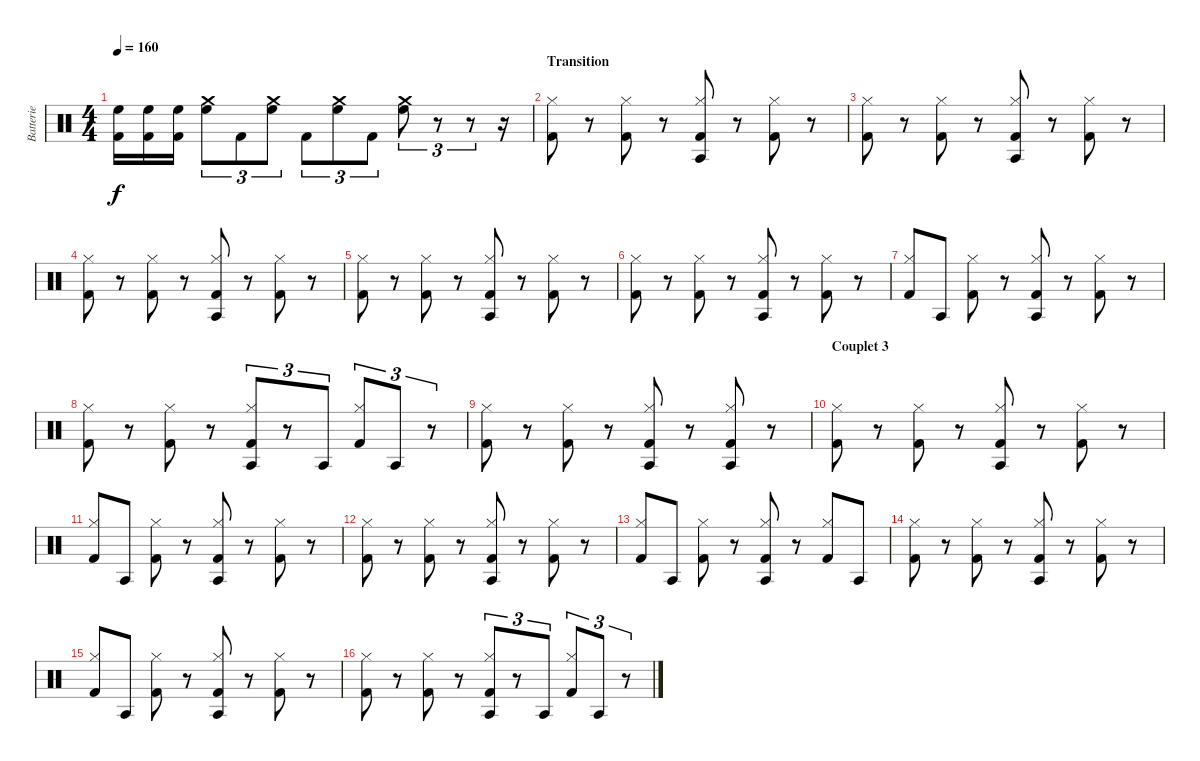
\track ("Batterie" "Batterie") {instrument percussion}
\staff {score}
\articulation defaults
\ts (4 4)
\tempo 160
\clef neutral
\ks c
("High Floor Tom (hit)" "Kick (hit) 2").16{dy f} ("High Floor Tom (hit)" "Kick (hit) 2").16 ("High Floor Tom (hit)" "Kick (hit) 2").16 ("Crash medium (hit)" "High Floor Tom (hit)").8{tu (3 2)} "Kick (hit) 2".8{tu (3 2)} ("Crash medium (hit)" "High Floor Tom (hit)").8{tu (3 2)} "Kick (hit) 2".8{tu (3 2)} ("Crash medium (hit)" "High Floor Tom (hit)").8{tu (3 2)} "Kick (hit) 2".8{tu (3 2)} ("Crash medium (hit)" "High Floor Tom (hit)").8{tu (3 2)} r.8{tu (3 2)} r.8{tu (3 2)} r.16 |
\section ("" "Transition")
("Hi-Hat (closed)" "Kick (hit) 2").8 r.8 ("Hi-Hat (closed)" "Kick (hit) 2").8 r.8 ("Hi-Hat (closed)" "Agogo tow (hit)" "Kick (hit) 2").8 r.8 ("Hi-Hat (closed)" "Kick (hit) 2").8 r.8 |
("Hi-Hat (closed)" "Kick (hit) 2").8 r.8 ("Hi-Hat (closed)" "Kick (hit) 2").8 r.8 ("Hi-Hat (closed)" "Agogo tow (hit)" "Kick (hit) 2").8 r.8 ("Hi-Hat (closed)" "Kick (hit) 2").8 r.8 |
("Hi-Hat (closed)" "Kick (hit) 2").8 r.8 ("Hi-Hat (closed)" "Kick (hit) 2").8 r.8 ("Hi-Hat (closed)" "Agogo tow (hit)" "Kick (hit) 2").8 r.8 ("Hi-Hat (closed)" "Kick (hit) 2").8 r.8 |
("Hi-Hat (closed)" "Kick (hit) 2").8 r.8 ("Hi-Hat (closed)" "Kick (hit) 2").8 r.8 ("Hi-Hat (closed)" "Agogo tow (hit)" "Kick (hit) 2").8 r.8 ("Hi-Hat (closed)" "Kick (hit) 2").8 r.8 |
("Hi-Hat (closed)" "Kick (hit) 2").8 r.8 ("Hi-Hat (closed)" "Kick (hit) 2").8 r.8 ("Hi-Hat (closed)" "Agogo tow (hit)" "Kick (hit) 2").8 r.8 ("Hi-Hat (closed)" "Kick (hit) 2").8 r.8 |
("Hi-Hat (closed)" "Kick (hit) 2").8 "Agogo tow (hit)".8 ("Hi-Hat (closed)" "Kick (hit) 2").8 r.8 ("Hi-Hat (closed)" "Agogo tow (hit)" "Kick (hit) 2").8 r.8 ("Hi-Hat (closed)" "Kick (hit) 2").8 r.8 |
("Hi-Hat (closed)" "Kick (hit) 2").8 r.8 ("Hi-Hat (closed)" "Kick (hit) 2").8 r.8 ("Hi-Hat (closed)" "Agogo tow (hit)" "Kick (hit) 2").8{tu (3 2)} r.8{tu (3 2)} "Agogo tow (hit)".8{tu (3 2)} ("Hi-Hat (closed)" "Kick (hit) 2").8{tu (3 2)} "Agogo tow (hit)".8{tu (3 2)} r.8{tu (3 2)} |
("Hi-Hat (closed)" "Kick (hit) 2").8 r.8 ("Hi-Hat (closed)" "Kick (hit) 2").8 r.8 ("Hi-Hat (closed)" "Agogo tow (hit)" "Kick (hit) 2").8 r.8 ("Hi-Hat (closed)" "Agogo tow (hit)" "Kick (hit) 2").8 r.8 |
\section ("" "Couplet 3")
("Hi-Hat (closed)" "Kick (hit) 2").8 r.8 ("Hi-Hat (closed)" "Kick (hit) 2").8 r.8 ("Hi-Hat (closed)" "Agogo tow (hit)" "Kick (hit) 2").8 r.8 ("Hi-Hat (closed)" "Kick (hit) 2").8 r.8 |
("Hi-Hat (closed)" "Kick (hit) 2").8 "Agogo tow (hit)".8 ("Hi-Hat (closed)" "Kick (hit) 2").8 r.8 ("Hi-Hat (closed)" "Agogo tow (hit)" "Kick (hit) 2").8 r.8 ("Hi-Hat (closed)" "Kick (hit) 2").8 r.8 |
("Hi-Hat (closed)" "Kick (hit) 2").8 r.8 ("Hi-Hat (closed)" "Kick (hit) 2").8 r.8 ("Hi-Hat (closed)" "Agogo tow (hit)" "Kick (hit) 2").8 r.8 ("Hi-Hat (closed)" "Kick (hit) 2").8 r.8 |
("Hi-Hat (closed)" "Kick (hit) 2").8 "Agogo tow (hit)".8 ("Hi-Hat (closed)" "Kick (hit) 2").8 r.8 ("Hi-Hat (closed)" "Agogo tow (hit)" "Kick (hit) 2").8 r.8 ("Hi-Hat (closed)" "Kick (hit) 2").8 "Agogo tow (hit)".8 |
("Hi-Hat (closed)" "Kick (hit) 2").8 r.8 ("Hi-Hat (closed)" "Kick (hit) 2").8 r.8 ("Hi-Hat (closed)" "Agogo tow (hit)" "Kick (hit) 2").8 r.8 ("Hi-Hat (closed)" "Kick (hit) 2").8 r.8 |
("Hi-Hat (closed)" "Kick (hit) 2").8 "Agogo tow (hit)".8 ("Hi-Hat (closed)" "Kick (hit) 2").8 r.8 ("Hi-Hat (closed)" "Agogo tow (hit)" "Kick (hit) 2").8 r.8 ("Hi-Hat (closed)" "Kick (hit) 2").8 r.8 |
("Hi-Hat (closed)" "Kick (hit) 2").8 r.8 ("Hi-Hat (closed)" "Kick (hit) 2").8 r.8 ("Hi-Hat (closed)" "Agogo tow (hit)" "Kick (hit) 2").8{tu (3 2)} r.8{tu (3 2)} "Agogo tow (hit)".8{tu (3 2)} ("Hi-Hat (closed)" "Kick (hit) 2").8{tu (3 2)} "Agogo tow (hit)".8{tu (3 2)} r.8{tu (3 2)}
